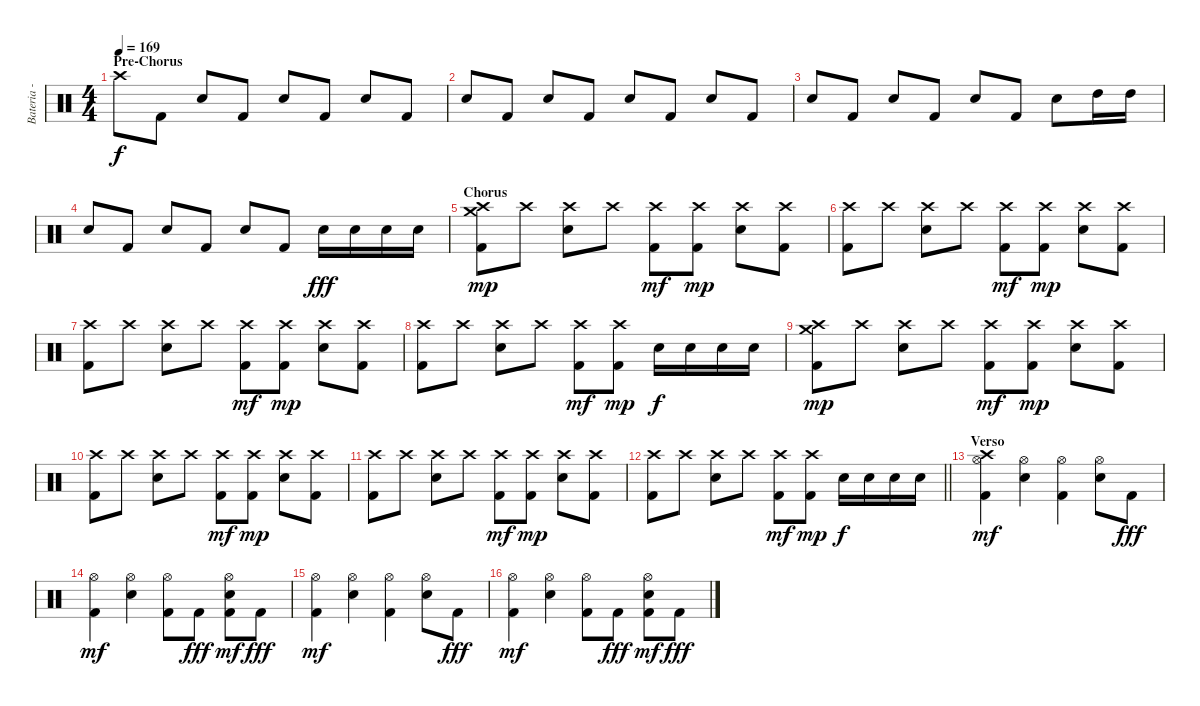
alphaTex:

\track ("Bateria - Larzon" "Bateria - ") {instrument percussion}
\staff {score}
\articulation defaults
\ts (4 4)
\section ("" "Pre-Chorus")
\tempo 169
\clef neutral
\ks c "Crash high (hit)".8{dy f} "Kick (hit) 2".8 "Electric Snare (hit)".8 "Kick (hit) 2".8 "Electric Snare (hit)".8 "Kick (hit) 2".8 "Electric Snare (hit)".8 "Kick (hit) 2".8
|
"Electric Snare (hit)".8 "Kick (hit) 2".8 "Electric Snare (hit)".8 "Kick (hit) 2".8 "Electric Snare (hit)".8 "Kick (hit) 2".8 "Electric Snare (hit)".8 "Kick (hit) 2".8 |
"Electric Snare (hit)".8 "Kick (hit) 2".8 "Electric Snare (hit)".8 "Kick (hit) 2".8 "Electric Snare (hit)".8 "Kick (hit) 2".8 "Electric Snare (hit)".8 "High Tom (hit)".16 "High Tom (hit)".16 |
"Electric Snare (hit)".8 "Kick (hit) 2".8 "Electric Snare (hit)".8 "Kick (hit) 2".8 "Electric Snare (hit)".8 "Kick (hit) 2".8 "Electric Snare (hit)".16{dy fff} "Electric Snare (hit)".16 "Electric Snare (hit)".16 "Electric Snare (hit)".16 |
\section ("" "Chorus")
("Kick (hit) 2" "Crash medium (hit)" "Crash high (hit)").8{dy mp} "Crash high (hit)".8 ("Electric Snare (hit)" "Crash high (hit)").8 "Crash high (hit)".8 ("Kick (hit) 2" "Crash high (hit)").8{dy mf} ("Kick (hit) 2" "Crash high (hit)").8{dy mp} ("Electric Snare (hit)" "Crash high (hit)").8 ("Kick (hit) 2" "Crash high (hit)").8 |
("Kick (hit) 2" "Crash high (hit)").8 "Crash high (hit)".8 ("Electric Snare (hit)" "Crash high (hit)").8 "Crash high (hit)".8 ("Kick (hit) 2" "Crash high (hit)").8{dy mf} ("Kick (hit) 2" "Crash high (hit)").8{dy mp} ("Electric Snare (hit)" "Crash high (hit)").8 ("Kick (hit) 2" "Crash high (hit)").8 |
("Kick (hit) 2" "Crash high (hit)").8 "Crash high (hit)".8 ("Electric Snare (hit)" "Crash high (hit)").8 "Crash high (hit)".8 ("Kick (hit) 2" "Crash high (hit)").8{dy mf} ("Kick (hit) 2" "Crash high (hit)").8{dy mp} ("Electric Snare (hit)" "Crash high (hit)").8 ("Kick (hit) 2" "Crash high (hit)").8 |
("Kick (hit) 2" "Crash high (hit)").8 "Crash high (hit)".8 ("Electric Snare (hit)" "Crash high (hit)").8 "Crash high (hit)".8 ("Kick (hit) 2" "Crash high (hit)").8{dy mf} ("Kick (hit) 2" "Crash high (hit)").8{dy mp} "Electric Snare (hit)".16{dy f} "Electric Snare (hit)".16 "Electric Snare (hit)".16 "Electric Snare (hit)".16 |
("Kick (hit) 2" "Crash medium (hit)" "Crash high (hit)").8{dy mp} "Crash high (hit)".8 ("Electric Snare (hit)" "Crash high (hit)").8 "Crash high (hit)".8 ("Kick (hit) 2" "Crash high (hit)").8{dy mf} ("Kick (hit) 2" "Crash high (hit)").8{dy mp} ("Electric Snare (hit)" "Crash high (hit)").8 ("Kick (hit) 2" "Crash high (hit)").8 |
("Kick (hit) 2" "Crash high (hit)").8 "Crash high (hit)".8 ("Electric Snare (hit)" "Crash high (hit)").8 "Crash high (hit)".8 ("Kick (hit) 2" "Crash high (hit)").8{dy mf} ("Kick (hit) 2" "Crash high (hit)").8{dy mp} ("Electric Snare (hit)" "Crash high (hit)").8 ("Kick (hit) 2" "Crash high (hit)").8 |
("Kick (hit) 2" "Crash high (hit)").8 "Crash high (hit)".8 ("Electric Snare (hit)" "Crash high (hit)").8 "Crash high (hit)".8 ("Kick (hit) 2" "Crash high (hit)").8{dy mf} ("Kick (hit) 2" "Crash high (hit)").8{dy mp} ("Electric Snare (hit)" "Crash high (hit)").8 ("Kick (hit) 2" "Crash high (hit)").8 |
\barLineRight lightlight
("Kick (hit) 2" "Crash high (hit)").8 "Crash high (hit)".8 ("Electric Snare (hit)" "Crash high (hit)").8 "Crash high (hit)".8 ("Kick (hit) 2" "Crash high (hit)").8{dy mf} ("Kick (hit) 2" "Crash high (hit)").8{dy mp} "Electric Snare (hit)".16{dy f} "Electric Snare (hit)".16 "Electric Snare (hit)".16 "Electric Snare (hit)".16 |
\section ("" "Verso")
("Kick (hit) 2" "Crash high (hit)" "Hi-Hat (open)").4{dy mf} ("Electric Snare (hit)" "Hi-Hat (open)").4 ("Kick (hit) 2" "Hi-Hat (open)").4 ("Electric Snare (hit)" "Hi-Hat (open)").8 "Kick (hit) 2".8{dy fff} |
("Kick (hit) 2" "Hi-Hat (open)").4{dy mf} ("Electric Snare (hit)" "Hi-Hat (open)").4 ("Kick (hit) 2" "Hi-Hat (open)").8 "Kick (hit) 2".8{dy fff} ("Electric Snare (hit)" "Kick (hit) 2" "Hi-Hat (open)").8{dy mf} "Kick (hit) 2".8{dy fff} |
("Kick (hit) 2" "Hi-Hat (open)").4{dy mf} ("Electric Snare (hit)" "Hi-Hat (open)").4 ("Kick (hit) 2" "Hi-Hat (open)").4 ("Electric Snare (hit)" "Hi-Hat (open)").8 "Kick (hit) 2".8{dy fff} |
("Kick (hit) 2" "Hi-Hat (open)").4{dy mf} ("Electric Snare (hit)" "Hi-Hat (open)").4 ("Kick (hit) 2" "Hi-Hat (open)").8 "Kick (hit) 2".8{dy fff} ("Electric Snare (hit)" "Kick (hit) 2" "Hi-Hat (open)").8{dy mf} "Kick (hit) 2".8{dy fff}
